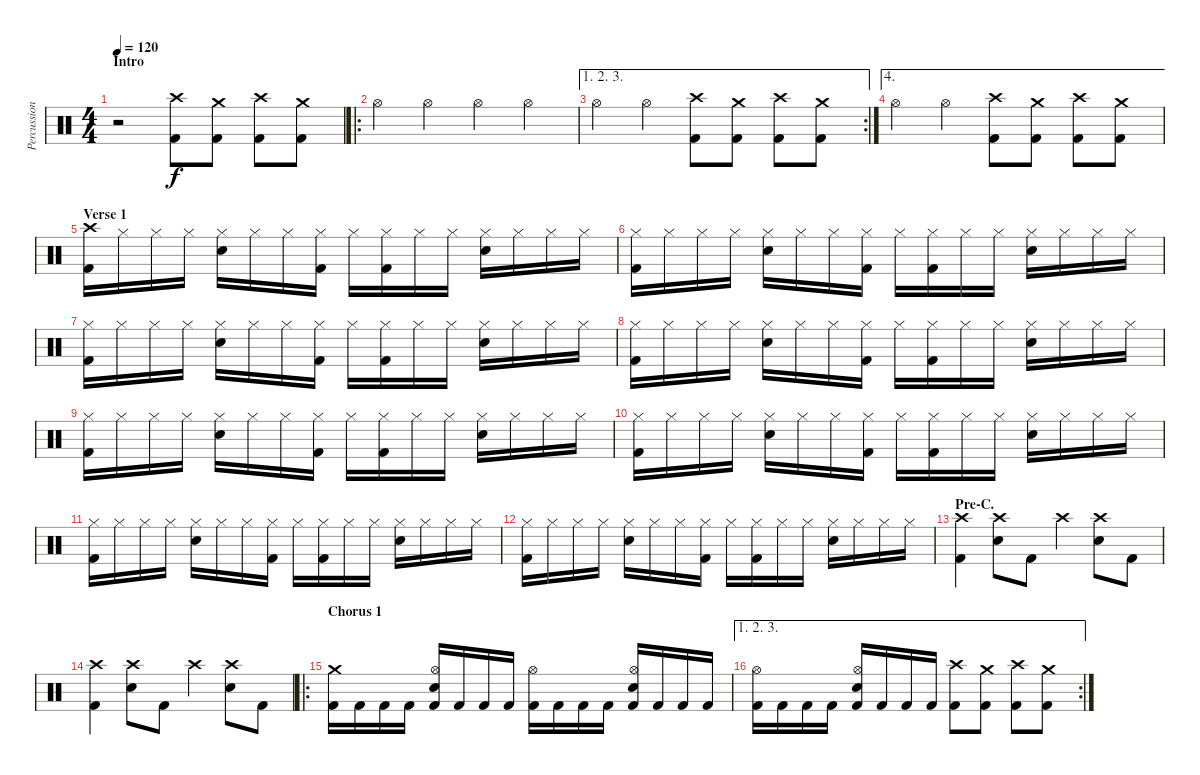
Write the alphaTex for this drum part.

\track ("Percussion" "Percussion") {instrument percussion}
\staff {score}
\articulation defaults
\ts (4 4)
\section ("" "Intro")
\tempo 120
\clef neutral
\ks c
r.2{dy f} ("Crash high (hit)" "Kick (hit) 2").8 ("Crash medium (hit)" "Kick (hit) 2").8 ("Crash high (hit)" "Kick (hit) 2").8 ("Crash medium (hit)" "Kick (hit) 2").8 |
\ro "Hi-Hat (open)".4 "Hi-Hat (open)".4 "Hi-Hat (open)".4 "Hi-Hat (open)".4
|
\ae (1 2 3)
\rc 2 "Hi-Hat (open)".4 "Hi-Hat (open)".4
("Crash high (hit)" "Kick (hit) 2").8 ("Crash medium (hit)" "Kick (hit) 2").8 ("Crash high (hit)" "Kick (hit) 2").8 ("Crash medium (hit)" "Kick (hit) 2").8 |
\ae 4 "Hi-Hat (open)".4 "Hi-Hat (open)".4
("Crash high (hit)" "Kick (hit) 2").8 ("Crash medium (hit)" "Kick (hit) 2").8 ("Crash high (hit)" "Kick (hit) 2").8 ("Crash medium (hit)" "Kick (hit) 2").8 |
\section ("" "Verse 1")
("Crash high (hit)" "Kick (hit) 2").16 "Hi-Hat (closed)".16 "Hi-Hat (closed)".16 "Hi-Hat (closed)".16 ("Hi-Hat (closed)" "Snare (hit) 2").16 "Hi-Hat (closed)".16 "Hi-Hat (closed)".16 ("Hi-Hat (closed)" "Kick (hit) 2").16 "Hi-Hat (closed)".16 ("Hi-Hat (closed)" "Kick (hit) 2").16 "Hi-Hat (closed)".16 "Hi-Hat (closed)".16 ("Hi-Hat (closed)" "Snare (hit) 2").16 "Hi-Hat (closed)".16 "Hi-Hat (closed)".16 "Hi-Hat (closed)".16 |
("Hi-Hat (closed)" "Kick (hit) 2").16 "Hi-Hat (closed)".16 "Hi-Hat (closed)".16 "Hi-Hat (closed)".16 ("Hi-Hat (closed)" "Snare (hit) 2").16 "Hi-Hat (closed)".16 "Hi-Hat (closed)".16 ("Hi-Hat (closed)" "Kick (hit) 2").16 "Hi-Hat (closed)".16 ("Hi-Hat (closed)" "Kick (hit) 2").16 "Hi-Hat (closed)".16 "Hi-Hat (closed)".16 ("Hi-Hat (closed)" "Snare (hit) 2").16 "Hi-Hat (closed)".16 "Hi-Hat (closed)".16 "Hi-Hat (closed)".16 |
("Hi-Hat (closed)" "Kick (hit) 2").16 "Hi-Hat (closed)".16 "Hi-Hat (closed)".16 "Hi-Hat (closed)".16 ("Hi-Hat (closed)" "Snare (hit) 2").16 "Hi-Hat (closed)".16 "Hi-Hat (closed)".16 ("Hi-Hat (closed)" "Kick (hit) 2").16 "Hi-Hat (closed)".16 ("Hi-Hat (closed)" "Kick (hit) 2").16 "Hi-Hat (closed)".16 "Hi-Hat (closed)".16 ("Hi-Hat (closed)" "Snare (hit) 2").16 "Hi-Hat (closed)".16 "Hi-Hat (closed)".16 "Hi-Hat (closed)".16 |
("Hi-Hat (closed)" "Kick (hit) 2").16 "Hi-Hat (closed)".16 "Hi-Hat (closed)".16 "Hi-Hat (closed)".16 ("Hi-Hat (closed)" "Snare (hit) 2").16 "Hi-Hat (closed)".16 "Hi-Hat (closed)".16 ("Hi-Hat (closed)" "Kick (hit) 2").16 "Hi-Hat (closed)".16 ("Hi-Hat (closed)" "Kick (hit) 2").16 "Hi-Hat (closed)".16 "Hi-Hat (closed)".16 ("Hi-Hat (closed)" "Snare (hit) 2").16 "Hi-Hat (closed)".16 "Hi-Hat (closed)".16 "Hi-Hat (closed)".16 |
("Hi-Hat (closed)" "Kick (hit) 2").16 "Hi-Hat (closed)".16 "Hi-Hat (closed)".16 "Hi-Hat (closed)".16 ("Hi-Hat (closed)" "Snare (hit) 2").16 "Hi-Hat (closed)".16 "Hi-Hat (closed)".16 ("Hi-Hat (closed)" "Kick (hit) 2").16 "Hi-Hat (closed)".16 ("Hi-Hat (closed)" "Kick (hit) 2").16 "Hi-Hat (closed)".16 "Hi-Hat (closed)".16 ("Hi-Hat (closed)" "Snare (hit) 2").16 "Hi-Hat (closed)".16 "Hi-Hat (closed)".16 "Hi-Hat (closed)".16 |
("Hi-Hat (closed)" "Kick (hit) 2").16 "Hi-Hat (closed)".16 "Hi-Hat (closed)".16 "Hi-Hat (closed)".16 ("Hi-Hat (closed)" "Snare (hit) 2").16 "Hi-Hat (closed)".16 "Hi-Hat (closed)".16 ("Hi-Hat (closed)" "Kick (hit) 2").16 "Hi-Hat (closed)".16 ("Hi-Hat (closed)" "Kick (hit) 2").16 "Hi-Hat (closed)".16 "Hi-Hat (closed)".16 ("Hi-Hat (closed)" "Snare (hit) 2").16 "Hi-Hat (closed)".16 "Hi-Hat (closed)".16 "Hi-Hat (closed)".16 |
("Hi-Hat (closed)" "Kick (hit) 2").16 "Hi-Hat (closed)".16 "Hi-Hat (closed)".16 "Hi-Hat (closed)".16 ("Hi-Hat (closed)" "Snare (hit) 2").16 "Hi-Hat (closed)".16 "Hi-Hat (closed)".16 ("Hi-Hat (closed)" "Kick (hit) 2").16 "Hi-Hat (closed)".16 ("Hi-Hat (closed)" "Kick (hit) 2").16 "Hi-Hat (closed)".16 "Hi-Hat (closed)".16 ("Hi-Hat (closed)" "Snare (hit) 2").16 "Hi-Hat (closed)".16 "Hi-Hat (closed)".16 "Hi-Hat (closed)".16 |
("Hi-Hat (closed)" "Kick (hit) 2").16 "Hi-Hat (closed)".16 "Hi-Hat (closed)".16 "Hi-Hat (closed)".16 ("Hi-Hat (closed)" "Snare (hit) 2").16 "Hi-Hat (closed)".16 "Hi-Hat (closed)".16 ("Hi-Hat (closed)" "Kick (hit) 2").16 "Hi-Hat (closed)".16 ("Hi-Hat (closed)" "Kick (hit) 2").16 "Hi-Hat (closed)".16 "Hi-Hat (closed)".16 ("Hi-Hat (closed)" "Snare (hit) 2").16 "Hi-Hat (closed)".16 "Hi-Hat (closed)".16 "Hi-Hat (closed)".16 |
\section ("" "Pre-C.")
("Crash high (hit)" "Kick (hit) 2").4 ("Crash high (hit)" "Snare (hit) 2").8 "Kick (hit) 2".8 "Crash high (hit)".4 ("Crash high (hit)" "Snare (hit) 2").8 "Kick (hit) 2".8 |
("Crash high (hit)" "Kick (hit) 2").4 ("Crash high (hit)" "Snare (hit) 2").8 "Kick (hit) 2".8 "Crash high (hit)".4 ("Crash high (hit)" "Snare (hit) 2").8 "Kick (hit) 2".8 |
\ro
\section ("" "Chorus 1")
("Crash medium (hit)" "Kick (hit) 2").16 "Kick (hit) 2".16 "Kick (hit) 2".16 "Kick (hit) 2".16 ("Hi-Hat (open)" "Snare (hit) 2" "Kick (hit) 2").16 "Kick (hit) 2".16 "Kick (hit) 2".16 "Kick (hit) 2".16 ("Hi-Hat (open)" "Kick (hit) 2").16 "Kick (hit) 2".16 "Kick (hit) 2".16 "Kick (hit) 2".16 ("Hi-Hat (open)" "Snare (hit) 2" "Kick (hit) 2").16 "Kick (hit) 2".16 "Kick (hit) 2".16 "Kick (hit) 2".16 |
\ae (1 2 3)
\rc 2
("Hi-Hat (open)" "Kick (hit) 2").16 "Kick (hit) 2".16 "Kick (hit) 2".16 "Kick (hit) 2".16 ("Hi-Hat (open)" "Snare (hit) 2" "Kick (hit) 2").16 "Kick (hit) 2".16 "Kick (hit) 2".16 "Kick (hit) 2".16 ("Crash high (hit)" "Kick (hit) 2").8 ("Crash medium (hit)" "Kick (hit) 2").8 ("Crash high (hit)" "Kick (hit) 2").8 ("Crash medium (hit)" "Kick (hit) 2").8
